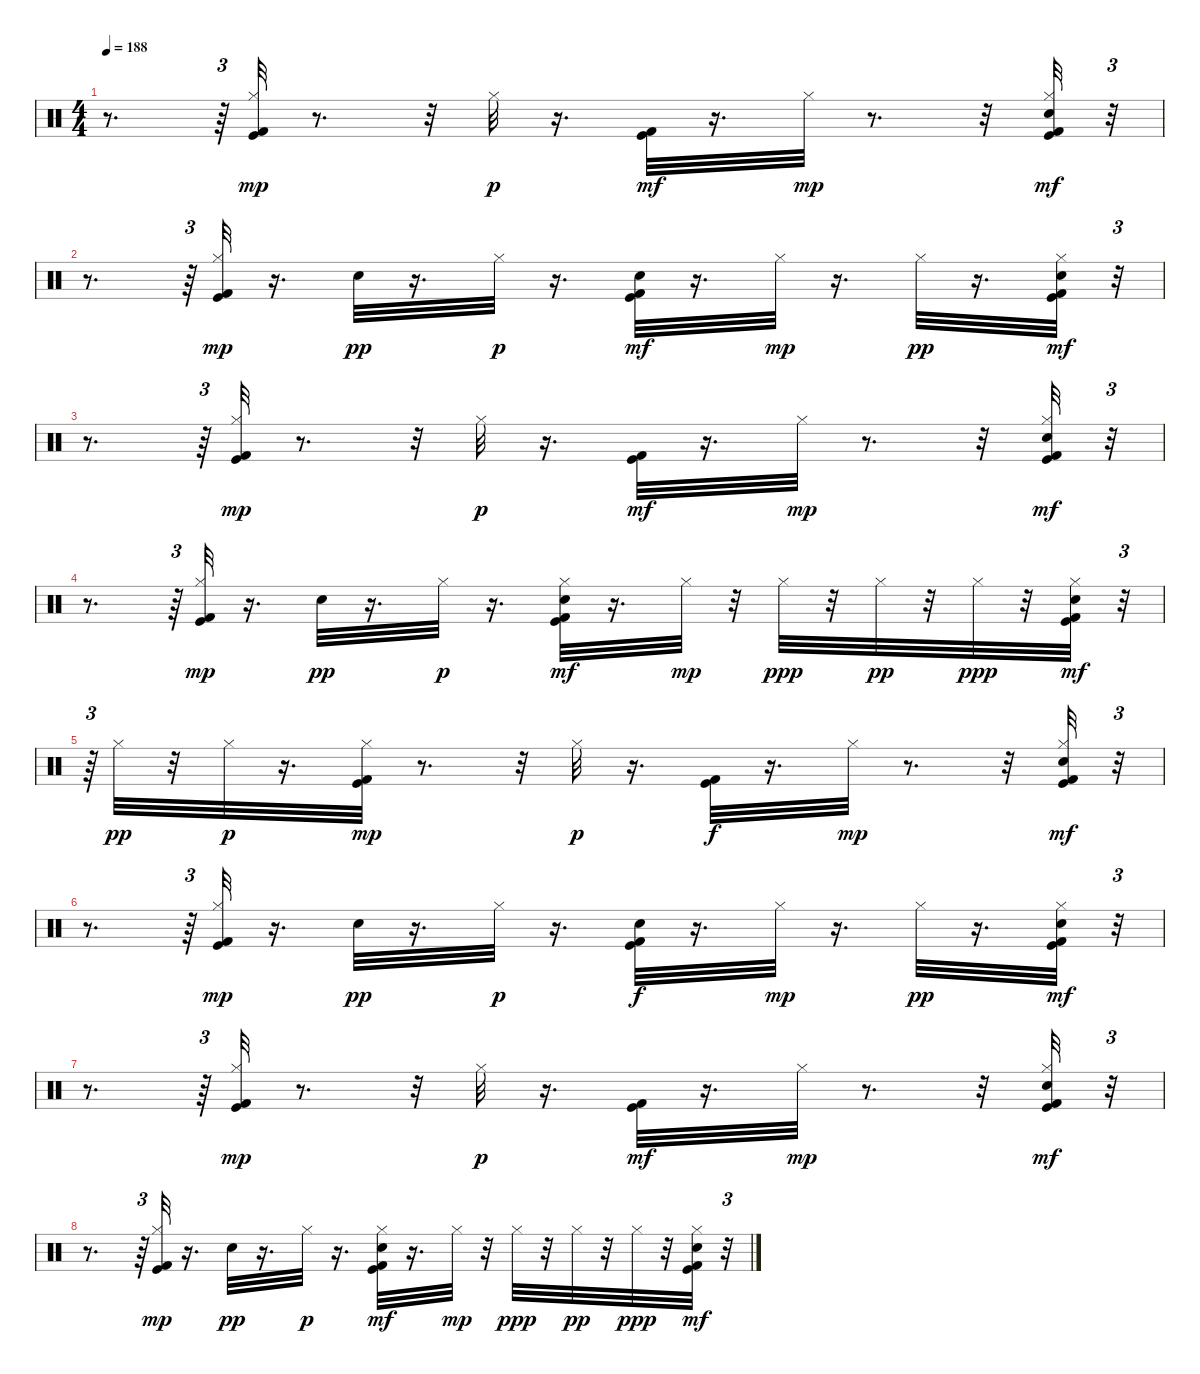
\track "" {instrument percussion}
\staff {score}
\articulation defaults
\ts (4 4)
\tempo 188
\clef neutral
\ks c
r.8{d dy mf} r.64{tu (3 2)} ("Kick (hit) 2" "Hi-Hat (closed)" "Kick (hit)").32{dy mp} r.8{d} r.32 "Hi-Hat (closed)".32{dy p} r.16{d} ("Kick (hit) 2" "Kick (hit)").32{dy mf} r.16{d} "Hi-Hat (closed)".32{dy mp} r.8{d} r.32 ("Kick (hit) 2" "Hi-Hat (closed)" "Electric Snare (hit)" "Kick (hit)").32{dy mf} r.32{tu (3 2)} |
r.8{d} r.64{tu (3 2)} ("Kick (hit) 2" "Hi-Hat (closed)" "Kick (hit)").32{dy mp} r.16{d} "Electric Snare (hit)".32{dy pp} r.16{d} "Hi-Hat (closed)".32{dy p} r.16{d} ("Kick (hit) 2" "Electric Snare (hit)" "Kick (hit)").32{dy mf} r.16{d} "Hi-Hat (closed)".32{dy mp} r.16{d} "Hi-Hat (closed)".32{dy pp} r.16{d} ("Kick (hit) 2" "Hi-Hat (closed)" "Electric Snare (hit)" "Kick (hit)").32{dy mf} r.32{tu (3 2)} |
r.8{d} r.64{tu (3 2)} ("Kick (hit) 2" "Hi-Hat (closed)" "Kick (hit)").32{dy mp} r.8{d} r.32 "Hi-Hat (closed)".32{dy p} r.16{d} ("Kick (hit) 2" "Kick (hit)").32{dy mf} r.16{d} "Hi-Hat (closed)".32{dy mp} r.8{d} r.32 ("Kick (hit) 2" "Hi-Hat (closed)" "Electric Snare (hit)" "Kick (hit)").32{dy mf} r.32{tu (3 2)} |
r.8{d} r.64{tu (3 2)} ("Kick (hit) 2" "Hi-Hat (closed)" "Kick (hit)").32{dy mp} r.16{d} "Electric Snare (hit)".32{dy pp} r.16{d} "Hi-Hat (closed)".32{dy p} r.16{d} ("Kick (hit) 2" "Electric Snare (hit)" "Hi-Hat (closed)" "Kick (hit)").32{dy mf} r.16{d} "Hi-Hat (closed)".32{dy mp} r.32 "Hi-Hat (closed)".32{dy ppp} r.32 "Hi-Hat (closed)".32{dy pp} r.32 "Hi-Hat (closed)".32{dy ppp} r.32 ("Kick (hit) 2" "Hi-Hat (closed)" "Electric Snare (hit)" "Kick (hit)").32{dy mf} r.32{tu (3 2)} |
r.64{tu (3 2)} "Hi-Hat (closed)".32{dy pp} r.32 "Hi-Hat (closed)".32{dy p} r.16{d} ("Kick (hit) 2" "Hi-Hat (closed)" "Kick (hit)").32{dy mp} r.8{d} r.32 "Hi-Hat (closed)".32{dy p} r.16{d} ("Kick (hit) 2" "Kick (hit)").32{dy f} r.16{d} "Hi-Hat (closed)".32{dy mp} r.8{d} r.32 ("Kick (hit) 2" "Hi-Hat (closed)" "Electric Snare (hit)" "Kick (hit)").32{dy mf} r.32{tu (3 2)} |
r.8{d} r.64{tu (3 2)} ("Kick (hit) 2" "Hi-Hat (closed)" "Kick (hit)").32{dy mp} r.16{d} "Electric Snare (hit)".32{dy pp} r.16{d} "Hi-Hat (closed)".32{dy p} r.16{d} ("Kick (hit) 2" "Electric Snare (hit)" "Kick (hit)").32{dy f} r.16{d} "Hi-Hat (closed)".32{dy mp} r.16{d} "Hi-Hat (closed)".32{dy pp} r.16{d} ("Kick (hit) 2" "Hi-Hat (closed)" "Electric Snare (hit)" "Kick (hit)").32{dy mf} r.32{tu (3 2)} |
r.8{d} r.64{tu (3 2)} ("Kick (hit) 2" "Hi-Hat (closed)" "Kick (hit)").32{dy mp} r.8{d} r.32 "Hi-Hat (closed)".32{dy p} r.16{d} ("Kick (hit) 2" "Kick (hit)").32{dy mf} r.16{d} "Hi-Hat (closed)".32{dy mp} r.8{d} r.32 ("Kick (hit) 2" "Hi-Hat (closed)" "Electric Snare (hit)" "Kick (hit)").32{dy mf} r.32{tu (3 2)} |
r.8{d} r.64{tu (3 2)} ("Kick (hit) 2" "Hi-Hat (closed)" "Kick (hit)").32{dy mp} r.16{d} "Electric Snare (hit)".32{dy pp} r.16{d} "Hi-Hat (closed)".32{dy p} r.16{d} ("Kick (hit) 2" "Electric Snare (hit)" "Hi-Hat (closed)" "Kick (hit)").32{dy mf} r.16{d} "Hi-Hat (closed)".32{dy mp} r.32 "Hi-Hat (closed)".32{dy ppp} r.32 "Hi-Hat (closed)".32{dy pp} r.32 "Hi-Hat (closed)".32{dy ppp} r.32 ("Kick (hit) 2" "Hi-Hat (closed)" "Electric Snare (hit)" "Kick (hit)").32{dy mf} r.32{tu (3 2)}
